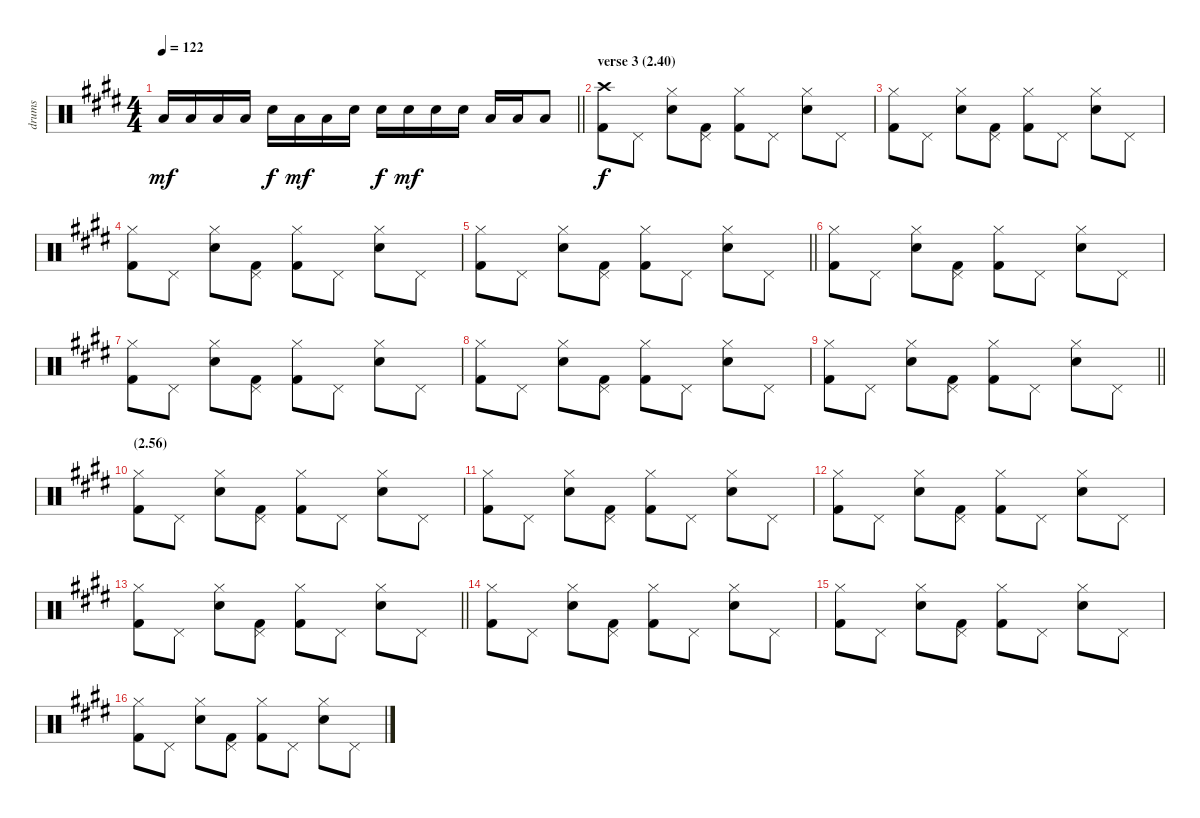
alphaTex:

\track ("drums" "drums") {instrument percussion}
\staff {score}
\articulation defaults
\ts (4 4)
\tempo 122
\clef neutral
\barLineRight lightlight
\ks e "Low Tom (hit)".16{dy mf} "Low Tom (hit)".16 "Low Tom (hit)".16 "Low Tom (hit)".16 "Electric Snare (hit)".16{dy f} "Low Tom (hit)".16{dy mf} "Low Tom (hit)".16 "Electric Snare (hit)".16 "Electric Snare (hit)".16{dy f} "Electric Snare (hit)".16{dy mf} "Electric Snare (hit)".16 "Electric Snare (hit)".16 "Low Tom (hit)".16 "Low Tom (hit)".16 "Low Tom (hit)".8
|
\section ("" "verse 3 (2.40)")
("Crash high (hit)" "Kick (hit) 2").8{dy f} "Pedal Hi-Hat (hit)".8 ("Hi-Hat (closed)" "Electric Snare (hit)").8 ("Pedal Hi-Hat (hit)" "Kick (hit) 2").8 ("Hi-Hat (closed)" "Kick (hit) 2").8 "Pedal Hi-Hat (hit)".8 ("Hi-Hat (closed)" "Electric Snare (hit)").8 "Pedal Hi-Hat (hit)".8 |
("Hi-Hat (closed)" "Kick (hit) 2").8 "Pedal Hi-Hat (hit)".8 ("Hi-Hat (closed)" "Electric Snare (hit)").8 ("Pedal Hi-Hat (hit)" "Kick (hit) 2").8 ("Hi-Hat (closed)" "Kick (hit) 2").8 "Pedal Hi-Hat (hit)".8 ("Hi-Hat (closed)" "Electric Snare (hit)").8 "Pedal Hi-Hat (hit)".8 |
("Hi-Hat (closed)" "Kick (hit) 2").8 "Pedal Hi-Hat (hit)".8 ("Hi-Hat (closed)" "Electric Snare (hit)").8 ("Pedal Hi-Hat (hit)" "Kick (hit) 2").8 ("Hi-Hat (closed)" "Kick (hit) 2").8 "Pedal Hi-Hat (hit)".8 ("Hi-Hat (closed)" "Electric Snare (hit)").8 "Pedal Hi-Hat (hit)".8 |
\barLineRight lightlight
("Hi-Hat (closed)" "Kick (hit) 2").8 "Pedal Hi-Hat (hit)".8 ("Hi-Hat (closed)" "Electric Snare (hit)").8 ("Pedal Hi-Hat (hit)" "Kick (hit) 2").8 ("Hi-Hat (closed)" "Kick (hit) 2").8 "Pedal Hi-Hat (hit)".8 ("Hi-Hat (closed)" "Electric Snare (hit)").8 "Pedal Hi-Hat (hit)".8 |
("Hi-Hat (closed)" "Kick (hit) 2").8 "Pedal Hi-Hat (hit)".8 ("Hi-Hat (closed)" "Electric Snare (hit)").8 ("Pedal Hi-Hat (hit)" "Kick (hit) 2").8 ("Hi-Hat (closed)" "Kick (hit) 2").8 "Pedal Hi-Hat (hit)".8 ("Hi-Hat (closed)" "Electric Snare (hit)").8 "Pedal Hi-Hat (hit)".8 |
("Hi-Hat (closed)" "Kick (hit) 2").8 "Pedal Hi-Hat (hit)".8 ("Hi-Hat (closed)" "Electric Snare (hit)").8 ("Pedal Hi-Hat (hit)" "Kick (hit) 2").8 ("Hi-Hat (closed)" "Kick (hit) 2").8 "Pedal Hi-Hat (hit)".8 ("Hi-Hat (closed)" "Electric Snare (hit)").8 "Pedal Hi-Hat (hit)".8 |
("Hi-Hat (closed)" "Kick (hit) 2").8 "Pedal Hi-Hat (hit)".8 ("Hi-Hat (closed)" "Electric Snare (hit)").8 ("Pedal Hi-Hat (hit)" "Kick (hit) 2").8 ("Hi-Hat (closed)" "Kick (hit) 2").8 "Pedal Hi-Hat (hit)".8 ("Hi-Hat (closed)" "Electric Snare (hit)").8 "Pedal Hi-Hat (hit)".8 |
\barLineRight lightlight
("Hi-Hat (closed)" "Kick (hit) 2").8 "Pedal Hi-Hat (hit)".8 ("Hi-Hat (closed)" "Electric Snare (hit)").8 ("Pedal Hi-Hat (hit)" "Kick (hit) 2").8 ("Hi-Hat (closed)" "Kick (hit) 2").8 "Pedal Hi-Hat (hit)".8 ("Hi-Hat (closed)" "Electric Snare (hit)").8 "Pedal Hi-Hat (hit)".8 |
\section ("" "(2.56)")
("Hi-Hat (closed)" "Kick (hit) 2").8 "Pedal Hi-Hat (hit)".8 ("Hi-Hat (closed)" "Electric Snare (hit)").8 ("Pedal Hi-Hat (hit)" "Kick (hit) 2").8 ("Hi-Hat (closed)" "Kick (hit) 2").8 "Pedal Hi-Hat (hit)".8 ("Hi-Hat (closed)" "Electric Snare (hit)").8 "Pedal Hi-Hat (hit)".8 |
("Hi-Hat (closed)" "Kick (hit) 2").8 "Pedal Hi-Hat (hit)".8 ("Hi-Hat (closed)" "Electric Snare (hit)").8 ("Pedal Hi-Hat (hit)" "Kick (hit) 2").8 ("Hi-Hat (closed)" "Kick (hit) 2").8 "Pedal Hi-Hat (hit)".8 ("Hi-Hat (closed)" "Electric Snare (hit)").8 "Pedal Hi-Hat (hit)".8 |
("Hi-Hat (closed)" "Kick (hit) 2").8 "Pedal Hi-Hat (hit)".8 ("Hi-Hat (closed)" "Electric Snare (hit)").8 ("Pedal Hi-Hat (hit)" "Kick (hit) 2").8 ("Hi-Hat (closed)" "Kick (hit) 2").8 "Pedal Hi-Hat (hit)".8 ("Hi-Hat (closed)" "Electric Snare (hit)").8 "Pedal Hi-Hat (hit)".8 |
\barLineRight lightlight
("Hi-Hat (closed)" "Kick (hit) 2").8 "Pedal Hi-Hat (hit)".8 ("Hi-Hat (closed)" "Electric Snare (hit)").8 ("Pedal Hi-Hat (hit)" "Kick (hit) 2").8 ("Hi-Hat (closed)" "Kick (hit) 2").8 "Pedal Hi-Hat (hit)".8 ("Hi-Hat (closed)" "Electric Snare (hit)").8 "Pedal Hi-Hat (hit)".8 |
("Hi-Hat (closed)" "Kick (hit) 2").8 "Pedal Hi-Hat (hit)".8 ("Hi-Hat (closed)" "Electric Snare (hit)").8 ("Pedal Hi-Hat (hit)" "Kick (hit) 2").8 ("Hi-Hat (closed)" "Kick (hit) 2").8 "Pedal Hi-Hat (hit)".8 ("Hi-Hat (closed)" "Electric Snare (hit)").8 "Pedal Hi-Hat (hit)".8 |
("Hi-Hat (closed)" "Kick (hit) 2").8 "Pedal Hi-Hat (hit)".8 ("Hi-Hat (closed)" "Electric Snare (hit)").8 ("Pedal Hi-Hat (hit)" "Kick (hit) 2").8 ("Hi-Hat (closed)" "Kick (hit) 2").8 "Pedal Hi-Hat (hit)".8 ("Hi-Hat (closed)" "Electric Snare (hit)").8 "Pedal Hi-Hat (hit)".8 |
("Hi-Hat (closed)" "Kick (hit) 2").8 "Pedal Hi-Hat (hit)".8 ("Hi-Hat (closed)" "Electric Snare (hit)").8 ("Pedal Hi-Hat (hit)" "Kick (hit) 2").8 ("Hi-Hat (closed)" "Kick (hit) 2").8 "Pedal Hi-Hat (hit)".8 ("Hi-Hat (closed)" "Electric Snare (hit)").8 "Pedal Hi-Hat (hit)".8
